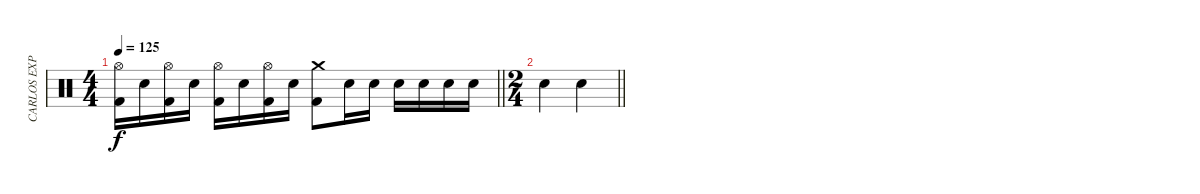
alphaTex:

\track ("CARLOS EXPÓSITO" "CARLOS EXP") {instrument percussion}
\staff {score}
\articulation defaults
\ts (4 4)
\tempo 125
\clef neutral
\barLineRight lightlight
\ks c
("Hi-Hat (open)" "Kick (hit) 2").16{dy f} "Snare (hit) 2".16 ("Hi-Hat (open)" "Kick (hit) 2").16 "Snare (hit) 2".16 ("Hi-Hat (open)" "Kick (hit) 2").16 "Snare (hit) 2".16 ("Hi-Hat (open)" "Kick (hit) 2").16 "Snare (hit) 2".16 ("Crash medium (hit)" "Kick (hit) 2").8 "Snare (hit) 2".16 "Snare (hit) 2".16 "Snare (hit) 2".16 "Snare (hit) 2".16 "Snare (hit) 2".16 "Snare (hit) 2".16 |
\ts (2 4)
\barLineRight lightlight "Snare (hit) 2".4 "Snare (hit) 2".4
